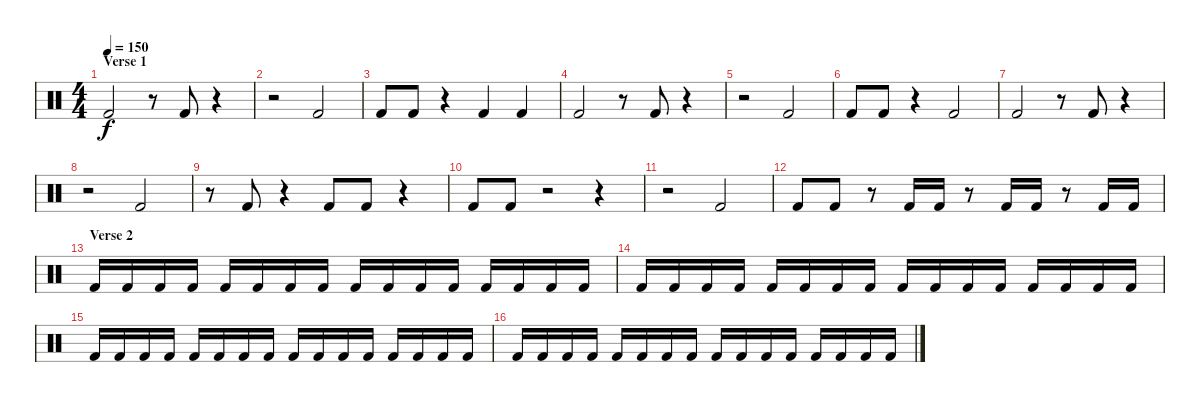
\track "" {instrument percussion}
\staff {score}
\articulation defaults
\ts (4 4)
\section ("" "Verse 1")
\tempo 150
\clef neutral
\ks c "Kick (hit) 2".2{dy f}
r.8 "Kick (hit) 2".8 r.4 |
r.2 "Kick (hit) 2".2 |
"Kick (hit) 2".8 "Kick (hit) 2".8 r.4 "Kick (hit) 2".4 "Kick (hit) 2".4 |
"Kick (hit) 2".2 r.8 "Kick (hit) 2".8 r.4 |
r.2 "Kick (hit) 2".2 |
"Kick (hit) 2".8 "Kick (hit) 2".8 r.4 "Kick (hit) 2".2 |
"Kick (hit) 2".2 r.8 "Kick (hit) 2".8 r.4 |
r.2 "Kick (hit) 2".2 |
r.8 "Kick (hit) 2".8 r.4 "Kick (hit) 2".8 "Kick (hit) 2".8 r.4 |
"Kick (hit) 2".8 "Kick (hit) 2".8 r.2 r.4 |
r.2 "Kick (hit) 2".2 |
"Kick (hit) 2".8 "Kick (hit) 2".8 r.8 "Kick (hit) 2".16 "Kick (hit) 2".16 r.8 "Kick (hit) 2".16 "Kick (hit) 2".16 r.8 "Kick (hit) 2".16 "Kick (hit) 2".16 |
\section ("" "Verse 2")
"Kick (hit) 2".16 "Kick (hit) 2".16 "Kick (hit) 2".16 "Kick (hit) 2".16 "Kick (hit) 2".16 "Kick (hit) 2".16 "Kick (hit) 2".16 "Kick (hit) 2".16 "Kick (hit) 2".16 "Kick (hit) 2".16 "Kick (hit) 2".16 "Kick (hit) 2".16 "Kick (hit) 2".16 "Kick (hit) 2".16 "Kick (hit) 2".16 "Kick (hit) 2".16 |
"Kick (hit) 2".16 "Kick (hit) 2".16 "Kick (hit) 2".16 "Kick (hit) 2".16 "Kick (hit) 2".16 "Kick (hit) 2".16 "Kick (hit) 2".16 "Kick (hit) 2".16 "Kick (hit) 2".16 "Kick (hit) 2".16 "Kick (hit) 2".16 "Kick (hit) 2".16 "Kick (hit) 2".16 "Kick (hit) 2".16 "Kick (hit) 2".16 "Kick (hit) 2".16 |
"Kick (hit) 2".16 "Kick (hit) 2".16 "Kick (hit) 2".16 "Kick (hit) 2".16 "Kick (hit) 2".16 "Kick (hit) 2".16 "Kick (hit) 2".16 "Kick (hit) 2".16 "Kick (hit) 2".16 "Kick (hit) 2".16 "Kick (hit) 2".16 "Kick (hit) 2".16 "Kick (hit) 2".16 "Kick (hit) 2".16 "Kick (hit) 2".16 "Kick (hit) 2".16 |
"Kick (hit) 2".16 "Kick (hit) 2".16 "Kick (hit) 2".16 "Kick (hit) 2".16 "Kick (hit) 2".16 "Kick (hit) 2".16 "Kick (hit) 2".16 "Kick (hit) 2".16 "Kick (hit) 2".16 "Kick (hit) 2".16 "Kick (hit) 2".16 "Kick (hit) 2".16 "Kick (hit) 2".16 "Kick (hit) 2".16 "Kick (hit) 2".16 "Kick (hit) 2".16
